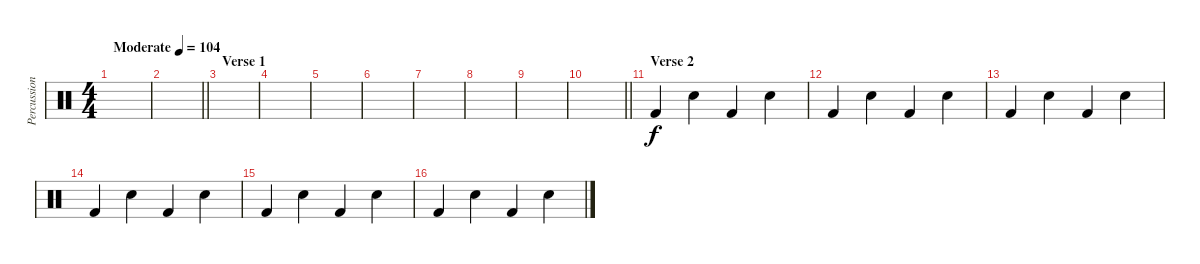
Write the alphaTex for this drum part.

\track ("Percussion" "Percussion") {instrument percussion}
\staff {score}
\articulation defaults
\ts (4 4)
\tempo (104 "Moderate")
\clef neutral
\ks c
|
\barLineRight lightlight
|
\section ("" "Verse 1")
|
|
|
|
|
|
|
\barLineRight lightlight
|
\section ("" "Verse 2")
"Kick (hit) 2".4 "Snare (hit) 2".4 "Kick (hit) 2".4 "Snare (hit) 2".4 |
"Kick (hit) 2".4 "Snare (hit) 2".4 "Kick (hit) 2".4 "Snare (hit) 2".4 |
"Kick (hit) 2".4 "Snare (hit) 2".4 "Kick (hit) 2".4 "Snare (hit) 2".4 |
"Kick (hit) 2".4 "Snare (hit) 2".4 "Kick (hit) 2".4 "Snare (hit) 2".4 |
"Kick (hit) 2".4 "Snare (hit) 2".4 "Kick (hit) 2".4 "Snare (hit) 2".4 |
"Kick (hit) 2".4 "Snare (hit) 2".4 "Kick (hit) 2".4 "Snare (hit) 2".4
